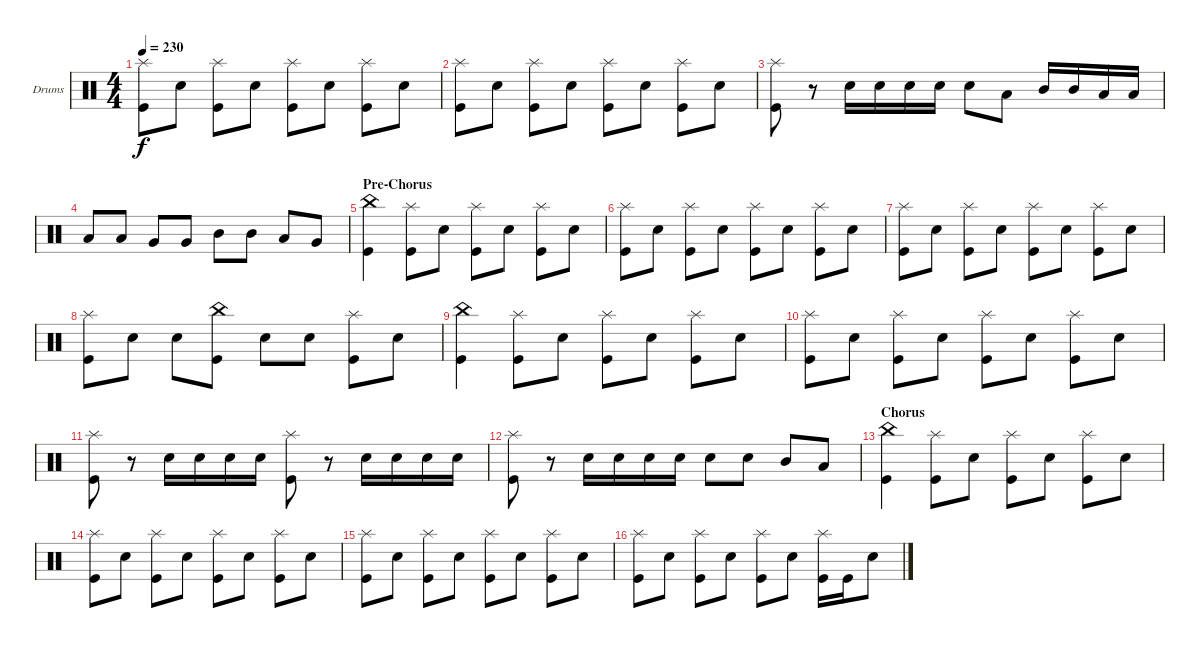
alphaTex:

\defaultSystemsLayout 4
\bracketExtendMode groupsimilarinstruments
\firstSystemTrackNameOrientation horizontal
\otherSystemsTrackNameOrientation horizontal
\track ("Drumkit" "Drums") {instrument percussion}
\staff {score}
\articulation defaults
\ts (4 4)
\tempo 230
\clef neutral
\ks c
("Kick (hit)" "Splash (hit)").8{dy f} "Snare (hit) 2".8 ("Kick (hit)" "Splash (hit)").8 "Snare (hit) 2".8 ("Kick (hit)" "Splash (hit)").8 "Snare (hit) 2".8 ("Kick (hit)" "Splash (hit)").8 "Snare (hit) 2".8 |
("Kick (hit)" "Splash (hit)").8 "Snare (hit) 2".8 ("Kick (hit)" "Splash (hit)").8 "Snare (hit) 2".8 ("Kick (hit)" "Splash (hit)").8 "Snare (hit) 2".8 ("Kick (hit)" "Splash (hit)").8 "Snare (hit) 2".8 |
("Kick (hit)" "Splash (hit)").8 r.8 "Snare (hit) 2".16 "Snare (hit) 2".16 "Snare (hit) 2".16 "Snare (hit) 2".16 "Snare (hit) 2".8 "Low Tom (hit)".8 "Mid Tom (hit)".16 "Mid Tom (hit)".16 "Low Tom (hit)".16 "Low Tom (hit)".16 |
"Low Tom (hit)".8 "Low Tom (hit)".8 "Very Low Tom (hit)".8 "Very Low Tom (hit)".8 "Mid Tom (hit)".8 "Mid Tom (hit)".8 "Low Tom (hit)".8 "Very Low Tom (hit)".8 |
\section ("" "Pre-Chorus")
("China (hit)" "Kick (hit)").4 ("Kick (hit)" "Splash (hit)").8 "Snare (hit) 2".8 ("Kick (hit)" "Splash (hit)").8 "Snare (hit) 2".8 ("Kick (hit)" "Splash (hit)").8 "Snare (hit) 2".8 |
("Kick (hit)" "Splash (hit)").8 "Snare (hit) 2".8 ("Kick (hit)" "Splash (hit)").8 "Snare (hit) 2".8 ("Kick (hit)" "Splash (hit)").8 "Snare (hit) 2".8 ("Kick (hit)" "Splash (hit)").8 "Snare (hit) 2".8 |
("Kick (hit)" "Splash (hit)").8 "Snare (hit) 2".8 ("Kick (hit)" "Splash (hit)").8 "Snare (hit) 2".8 ("Kick (hit)" "Splash (hit)").8 "Snare (hit) 2".8 ("Kick (hit)" "Splash (hit)").8 "Snare (hit) 2".8 |
("Kick (hit)" "Splash (hit)").8 "Snare (hit) 2".8 "Snare (hit) 2".8 ("Kick (hit)" "China (hit)").8 "Snare (hit) 2".8 "Snare (hit) 2".8 ("Kick (hit)" "Splash (hit)").8 "Snare (hit) 2".8 |
("China (hit)" "Kick (hit)").4 ("Kick (hit)" "Splash (hit)").8 "Snare (hit) 2".8 ("Kick (hit)" "Splash (hit)").8 "Snare (hit) 2".8 ("Kick (hit)" "Splash (hit)").8 "Snare (hit) 2".8 |
("Kick (hit)" "Splash (hit)").8 "Snare (hit) 2".8 ("Kick (hit)" "Splash (hit)").8 "Snare (hit) 2".8 ("Kick (hit)" "Splash (hit)").8 "Snare (hit) 2".8 ("Kick (hit)" "Splash (hit)").8 "Snare (hit) 2".8 |
("Kick (hit)" "Splash (hit)").8 r.8 "Snare (hit) 2".16 "Snare (hit) 2".16 "Snare (hit) 2".16 "Snare (hit) 2".16 ("Kick (hit)" "Splash (hit)").8 r.8 "Snare (hit) 2".16 "Snare (hit) 2".16 "Snare (hit) 2".16 "Snare (hit) 2".16 |
("Kick (hit)" "Splash (hit)").8 r.8 "Snare (hit) 2".16 "Snare (hit) 2".16 "Snare (hit) 2".16 "Snare (hit) 2".16 "Snare (hit) 2".8 "Snare (hit) 2".8 "Mid Tom (hit)".8 "Low Tom (hit)".8 |
\section ("" "Chorus")
("China (hit)" "Kick (hit)").4 ("Kick (hit)" "Splash (hit)").8 "Snare (hit) 2".8 ("Kick (hit)" "Splash (hit)").8 "Snare (hit) 2".8 ("Kick (hit)" "Splash (hit)").8 "Snare (hit) 2".8 |
("Kick (hit)" "Splash (hit)").8 "Snare (hit) 2".8 ("Kick (hit)" "Splash (hit)").8 "Snare (hit) 2".8 ("Kick (hit)" "Splash (hit)").8 "Snare (hit) 2".8 ("Kick (hit)" "Splash (hit)").8 "Snare (hit) 2".8 |
("Kick (hit)" "Splash (hit)").8 "Snare (hit) 2".8 ("Kick (hit)" "Splash (hit)").8 "Snare (hit) 2".8 ("Kick (hit)" "Splash (hit)").8 "Snare (hit) 2".8 ("Kick (hit)" "Splash (hit)").8 "Snare (hit) 2".8 |
("Kick (hit)" "Splash (hit)").8 "Snare (hit) 2".8 ("Kick (hit)" "Splash (hit)").8 "Snare (hit) 2".8 ("Kick (hit)" "Splash (hit)").8 "Snare (hit) 2".8 ("Kick (hit)" "Splash (hit)").16 "Kick (hit)".16 "Snare (hit) 2".8
